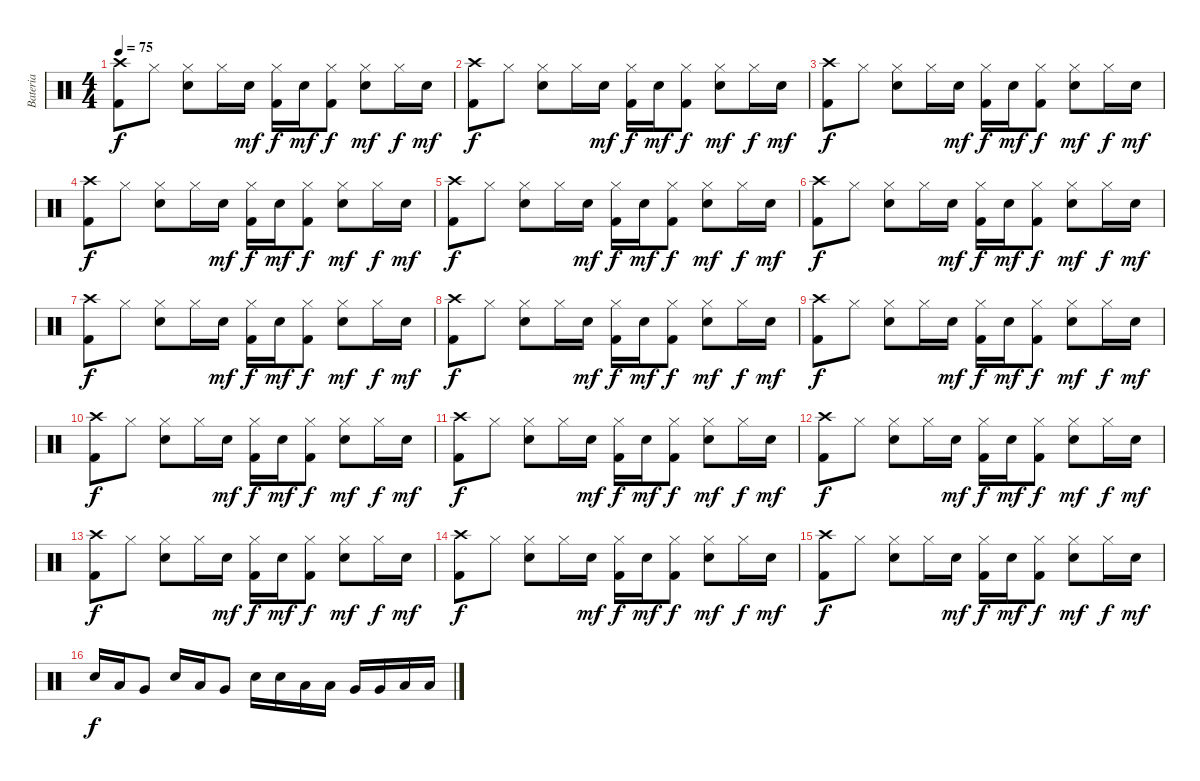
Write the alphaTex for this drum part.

\track ("Bateria" "Bateria") {instrument percussion}
\staff {score}
\articulation defaults
\ts (4 4)
\tempo 75
\clef neutral
\ks c
("Crash high (hit)" "Kick (hit) 2").8{dy f} "Hi-Hat (closed)".8 ("Hi-Hat (closed)" "Snare (hit) 2").8 "Hi-Hat (closed)".16 "Snare (hit) 2".16{dy mf} ("Hi-Hat (closed)" "Kick (hit) 2").16{dy f} "Snare (hit) 2".16{dy mf} ("Hi-Hat (closed)" "Kick (hit) 2").8{dy f} ("Hi-Hat (closed)" "Snare (hit) 2").8{dy mf} "Hi-Hat (closed)".16{dy f} "Snare (hit) 2".16{dy mf} |
("Crash high (hit)" "Kick (hit) 2").8{dy f} "Hi-Hat (closed)".8 ("Hi-Hat (closed)" "Snare (hit) 2").8 "Hi-Hat (closed)".16 "Snare (hit) 2".16{dy mf} ("Hi-Hat (closed)" "Kick (hit) 2").16{dy f} "Snare (hit) 2".16{dy mf} ("Hi-Hat (closed)" "Kick (hit) 2").8{dy f} ("Hi-Hat (closed)" "Snare (hit) 2").8{dy mf} "Hi-Hat (closed)".16{dy f} "Snare (hit) 2".16{dy mf} |
("Crash high (hit)" "Kick (hit) 2").8{dy f} "Hi-Hat (closed)".8 ("Hi-Hat (closed)" "Snare (hit) 2").8 "Hi-Hat (closed)".16 "Snare (hit) 2".16{dy mf} ("Hi-Hat (closed)" "Kick (hit) 2").16{dy f} "Snare (hit) 2".16{dy mf} ("Hi-Hat (closed)" "Kick (hit) 2").8{dy f} ("Hi-Hat (closed)" "Snare (hit) 2").8{dy mf} "Hi-Hat (closed)".16{dy f} "Snare (hit) 2".16{dy mf} |
("Crash high (hit)" "Kick (hit) 2").8{dy f} "Hi-Hat (closed)".8 ("Hi-Hat (closed)" "Snare (hit) 2").8 "Hi-Hat (closed)".16 "Snare (hit) 2".16{dy mf} ("Hi-Hat (closed)" "Kick (hit) 2").16{dy f} "Snare (hit) 2".16{dy mf} ("Hi-Hat (closed)" "Kick (hit) 2").8{dy f} ("Hi-Hat (closed)" "Snare (hit) 2").8{dy mf} "Hi-Hat (closed)".16{dy f} "Snare (hit) 2".16{dy mf} |
("Crash high (hit)" "Kick (hit) 2").8{dy f} "Hi-Hat (closed)".8 ("Hi-Hat (closed)" "Snare (hit) 2").8 "Hi-Hat (closed)".16 "Snare (hit) 2".16{dy mf} ("Hi-Hat (closed)" "Kick (hit) 2").16{dy f} "Snare (hit) 2".16{dy mf} ("Hi-Hat (closed)" "Kick (hit) 2").8{dy f} ("Hi-Hat (closed)" "Snare (hit) 2").8{dy mf} "Hi-Hat (closed)".16{dy f} "Snare (hit) 2".16{dy mf} |
("Crash high (hit)" "Kick (hit) 2").8{dy f} "Hi-Hat (closed)".8 ("Hi-Hat (closed)" "Snare (hit) 2").8 "Hi-Hat (closed)".16 "Snare (hit) 2".16{dy mf} ("Hi-Hat (closed)" "Kick (hit) 2").16{dy f} "Snare (hit) 2".16{dy mf} ("Hi-Hat (closed)" "Kick (hit) 2").8{dy f} ("Hi-Hat (closed)" "Snare (hit) 2").8{dy mf} "Hi-Hat (closed)".16{dy f} "Snare (hit) 2".16{dy mf} |
("Crash high (hit)" "Kick (hit) 2").8{dy f} "Hi-Hat (closed)".8 ("Hi-Hat (closed)" "Snare (hit) 2").8 "Hi-Hat (closed)".16 "Snare (hit) 2".16{dy mf} ("Hi-Hat (closed)" "Kick (hit) 2").16{dy f} "Snare (hit) 2".16{dy mf} ("Hi-Hat (closed)" "Kick (hit) 2").8{dy f} ("Hi-Hat (closed)" "Snare (hit) 2").8{dy mf} "Hi-Hat (closed)".16{dy f} "Snare (hit) 2".16{dy mf} |
("Crash high (hit)" "Kick (hit) 2").8{dy f} "Hi-Hat (closed)".8 ("Hi-Hat (closed)" "Snare (hit) 2").8 "Hi-Hat (closed)".16 "Snare (hit) 2".16{dy mf} ("Hi-Hat (closed)" "Kick (hit) 2").16{dy f} "Snare (hit) 2".16{dy mf} ("Hi-Hat (closed)" "Kick (hit) 2").8{dy f} ("Hi-Hat (closed)" "Snare (hit) 2").8{dy mf} "Hi-Hat (closed)".16{dy f} "Snare (hit) 2".16{dy mf} |
("Crash high (hit)" "Kick (hit) 2").8{dy f} "Hi-Hat (closed)".8 ("Hi-Hat (closed)" "Snare (hit) 2").8 "Hi-Hat (closed)".16 "Snare (hit) 2".16{dy mf} ("Hi-Hat (closed)" "Kick (hit) 2").16{dy f} "Snare (hit) 2".16{dy mf} ("Hi-Hat (closed)" "Kick (hit) 2").8{dy f} ("Hi-Hat (closed)" "Snare (hit) 2").8{dy mf} "Hi-Hat (closed)".16{dy f} "Snare (hit) 2".16{dy mf} |
("Crash high (hit)" "Kick (hit) 2").8{dy f} "Hi-Hat (closed)".8 ("Hi-Hat (closed)" "Snare (hit) 2").8 "Hi-Hat (closed)".16 "Snare (hit) 2".16{dy mf} ("Hi-Hat (closed)" "Kick (hit) 2").16{dy f} "Snare (hit) 2".16{dy mf} ("Hi-Hat (closed)" "Kick (hit) 2").8{dy f} ("Hi-Hat (closed)" "Snare (hit) 2").8{dy mf} "Hi-Hat (closed)".16{dy f} "Snare (hit) 2".16{dy mf} |
("Crash high (hit)" "Kick (hit) 2").8{dy f} "Hi-Hat (closed)".8 ("Hi-Hat (closed)" "Snare (hit) 2").8 "Hi-Hat (closed)".16 "Snare (hit) 2".16{dy mf} ("Hi-Hat (closed)" "Kick (hit) 2").16{dy f} "Snare (hit) 2".16{dy mf} ("Hi-Hat (closed)" "Kick (hit) 2").8{dy f} ("Hi-Hat (closed)" "Snare (hit) 2").8{dy mf} "Hi-Hat (closed)".16{dy f} "Snare (hit) 2".16{dy mf} |
("Crash high (hit)" "Kick (hit) 2").8{dy f} "Hi-Hat (closed)".8 ("Hi-Hat (closed)" "Snare (hit) 2").8 "Hi-Hat (closed)".16 "Snare (hit) 2".16{dy mf} ("Hi-Hat (closed)" "Kick (hit) 2").16{dy f} "Snare (hit) 2".16{dy mf} ("Hi-Hat (closed)" "Kick (hit) 2").8{dy f} ("Hi-Hat (closed)" "Snare (hit) 2").8{dy mf} "Hi-Hat (closed)".16{dy f} "Snare (hit) 2".16{dy mf} |
("Crash high (hit)" "Kick (hit) 2").8{dy f} "Hi-Hat (closed)".8 ("Hi-Hat (closed)" "Snare (hit) 2").8 "Hi-Hat (closed)".16 "Snare (hit) 2".16{dy mf} ("Hi-Hat (closed)" "Kick (hit) 2").16{dy f} "Snare (hit) 2".16{dy mf} ("Hi-Hat (closed)" "Kick (hit) 2").8{dy f} ("Hi-Hat (closed)" "Snare (hit) 2").8{dy mf} "Hi-Hat (closed)".16{dy f} "Snare (hit) 2".16{dy mf} |
("Crash high (hit)" "Kick (hit) 2").8{dy f} "Hi-Hat (closed)".8 ("Hi-Hat (closed)" "Snare (hit) 2").8 "Hi-Hat (closed)".16 "Snare (hit) 2".16{dy mf} ("Hi-Hat (closed)" "Kick (hit) 2").16{dy f} "Snare (hit) 2".16{dy mf} ("Hi-Hat (closed)" "Kick (hit) 2").8{dy f} ("Hi-Hat (closed)" "Snare (hit) 2").8{dy mf} "Hi-Hat (closed)".16{dy f} "Snare (hit) 2".16{dy mf} |
("Crash high (hit)" "Kick (hit) 2").8{dy f} "Hi-Hat (closed)".8 ("Hi-Hat (closed)" "Snare (hit) 2").8 "Hi-Hat (closed)".16 "Snare (hit) 2".16{dy mf} ("Hi-Hat (closed)" "Kick (hit) 2").16{dy f} "Snare (hit) 2".16{dy mf} ("Hi-Hat (closed)" "Kick (hit) 2").8{dy f} ("Hi-Hat (closed)" "Snare (hit) 2").8{dy mf} "Hi-Hat (closed)".16{dy f} "Snare (hit) 2".16{dy mf} |
"Snare (hit) 2".16{dy f} "Low Tom (hit)".16 "Very Low Tom (hit)".8 "Snare (hit) 2".16 "Low Tom (hit)".16 "Very Low Tom (hit)".8 "Snare (hit) 2".16 "Snare (hit) 2".16 "Low Tom (hit)".16 "Low Tom (hit)".16 "Very Low Tom (hit)".16 "Very Low Tom (hit)".16 "Low Floor Tom (hit)".16 "Low Floor Tom (hit)".16
